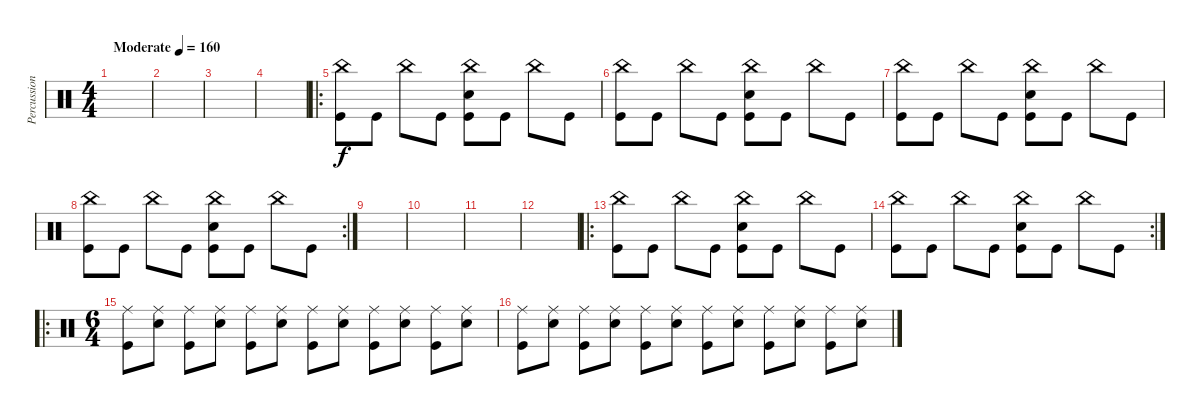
\track ("Percussion" "Percussion") {instrument percussion}
\staff {score}
\articulation defaults
\ts (4 4)
\tempo (160 "Moderate")
\clef neutral
\ks c
|
|
|
|
\ro
("China (hit)" "Kick (hit)").8 "Kick (hit)".8 "China (hit)".8 "Kick (hit)".8 ("China (hit)" "Snare (hit) 2" "Kick (hit)").8 "Kick (hit)".8 "China (hit)".8 "Kick (hit)".8 |
("China (hit)" "Kick (hit)").8 "Kick (hit)".8 "China (hit)".8 "Kick (hit)".8 ("China (hit)" "Snare (hit) 2" "Kick (hit)").8 "Kick (hit)".8 "China (hit)".8 "Kick (hit)".8 |
("China (hit)" "Kick (hit)").8 "Kick (hit)".8 "China (hit)".8 "Kick (hit)".8 ("China (hit)" "Snare (hit) 2" "Kick (hit)").8 "Kick (hit)".8 "China (hit)".8 "Kick (hit)".8 |
\rc 2
("China (hit)" "Kick (hit)").8 "Kick (hit)".8 "China (hit)".8 "Kick (hit)".8 ("China (hit)" "Snare (hit) 2" "Kick (hit)").8 "Kick (hit)".8 "China (hit)".8 "Kick (hit)".8 |
|
|
|
|
\ro
("China (hit)" "Kick (hit)").8 "Kick (hit)".8 "China (hit)".8 "Kick (hit)".8 ("China (hit)" "Snare (hit) 2" "Kick (hit)").8 "Kick (hit)".8 "China (hit)".8 "Kick (hit)".8 |
\rc 2
("China (hit)" "Kick (hit)").8 "Kick (hit)".8 "China (hit)".8 "Kick (hit)".8 ("China (hit)" "Snare (hit) 2" "Kick (hit)").8 "Kick (hit)".8 "China (hit)".8 "Kick (hit)".8 |
\ro
\ts (6 4)
("Ride (middle)" "Kick (hit)").8 ("Ride (middle)" "Snare (hit) 2").8 ("Ride (middle)" "Kick (hit)").8 ("Ride (middle)" "Snare (hit) 2").8 ("Ride (middle)" "Kick (hit)").8 ("Ride (middle)" "Snare (hit) 2").8 ("Ride (middle)" "Kick (hit)").8 ("Ride (middle)" "Snare (hit) 2").8 ("Ride (middle)" "Kick (hit)").8 ("Ride (middle)" "Snare (hit) 2").8 ("Ride (middle)" "Kick (hit)").8 ("Ride (middle)" "Snare (hit) 2").8 |
("Ride (middle)" "Kick (hit)").8 ("Ride (middle)" "Snare (hit) 2").8 ("Ride (middle)" "Kick (hit)").8 ("Ride (middle)" "Snare (hit) 2").8 ("Ride (middle)" "Kick (hit)").8 ("Ride (middle)" "Snare (hit) 2").8 ("Ride (middle)" "Kick (hit)").8 ("Ride (middle)" "Snare (hit) 2").8 ("Ride (middle)" "Kick (hit)").8 ("Ride (middle)" "Snare (hit) 2").8 ("Ride (middle)" "Kick (hit)").8 ("Ride (middle)" "Snare (hit) 2").8
